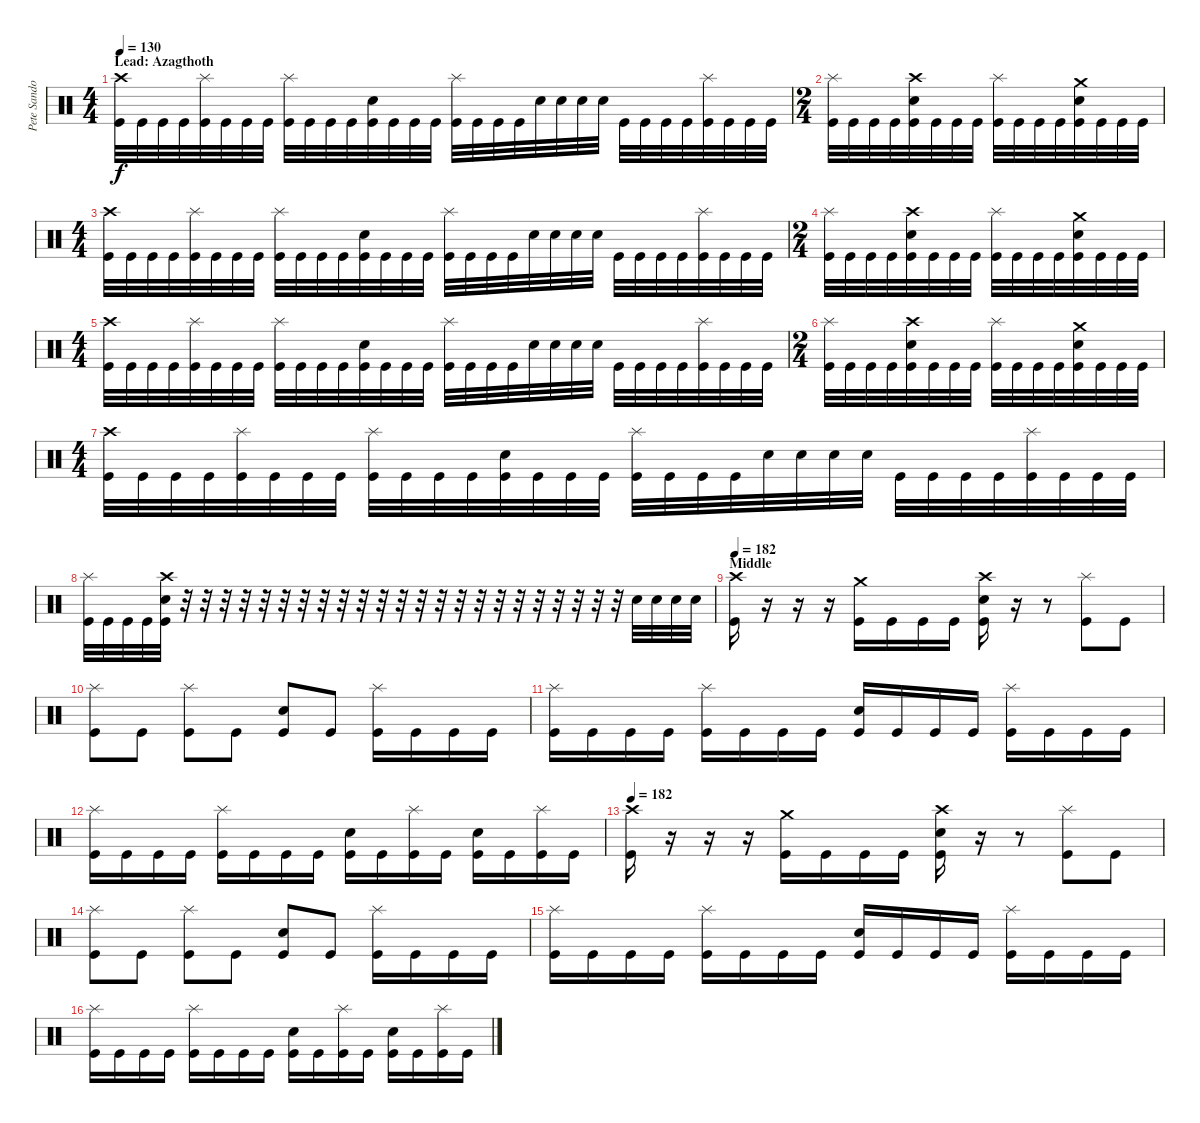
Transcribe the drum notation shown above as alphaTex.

\track ("Pete Sandoval" "Pete Sando") {instrument percussion}
\staff {score}
\articulation defaults
\ts (4 4)
\section ("" "Lead: Azagthoth")
\tempo 130
\clef neutral
\ks c
("Crash high (hit)" "Kick (hit)").32{dy f} "Kick (hit)".32 "Kick (hit)".32 "Kick (hit)".32 ("Splash (hit)" "Kick (hit)").32 "Kick (hit)".32 "Kick (hit)".32 "Kick (hit)".32 ("Splash (hit)" "Kick (hit)").32 "Kick (hit)".32 "Kick (hit)".32 "Kick (hit)".32 ("Electric Snare (hit)" "Kick (hit)").32 "Kick (hit)".32 "Kick (hit)".32 "Kick (hit)".32 ("Splash (hit)" "Kick (hit)").32 "Kick (hit)".32 "Kick (hit)".32 "Kick (hit)".32 "Electric Snare (hit)".32 "Electric Snare (hit)".32 "Electric Snare (hit)".32 "Electric Snare (hit)".32 "Kick (hit)".32 "Kick (hit)".32 "Kick (hit)".32 "Kick (hit)".32 ("Splash (hit)" "Kick (hit)").32 "Kick (hit)".32 "Kick (hit)".32 "Kick (hit)".32 |
\ts (2 4)
("Splash (hit)" "Kick (hit)").32 "Kick (hit)".32 "Kick (hit)".32 "Kick (hit)".32 ("Crash high (hit)" "Electric Snare (hit)" "Kick (hit)").32 "Kick (hit)".32 "Kick (hit)".32 "Kick (hit)".32 ("Splash (hit)" "Kick (hit)").32 "Kick (hit)".32 "Kick (hit)".32 "Kick (hit)".32 ("Crash medium (hit)" "Electric Snare (hit)" "Kick (hit)").32 "Kick (hit)".32 "Kick (hit)".32 "Kick (hit)".32 |
\ts (4 4)
("Crash high (hit)" "Kick (hit)").32 "Kick (hit)".32 "Kick (hit)".32 "Kick (hit)".32 ("Splash (hit)" "Kick (hit)").32 "Kick (hit)".32 "Kick (hit)".32 "Kick (hit)".32 ("Splash (hit)" "Kick (hit)").32 "Kick (hit)".32 "Kick (hit)".32 "Kick (hit)".32 ("Electric Snare (hit)" "Kick (hit)").32 "Kick (hit)".32 "Kick (hit)".32 "Kick (hit)".32 ("Splash (hit)" "Kick (hit)").32 "Kick (hit)".32 "Kick (hit)".32 "Kick (hit)".32 "Electric Snare (hit)".32 "Electric Snare (hit)".32 "Electric Snare (hit)".32 "Electric Snare (hit)".32 "Kick (hit)".32 "Kick (hit)".32 "Kick (hit)".32 "Kick (hit)".32 ("Splash (hit)" "Kick (hit)").32 "Kick (hit)".32 "Kick (hit)".32 "Kick (hit)".32 |
\ts (2 4)
("Splash (hit)" "Kick (hit)").32 "Kick (hit)".32 "Kick (hit)".32 "Kick (hit)".32 ("Crash high (hit)" "Electric Snare (hit)" "Kick (hit)").32 "Kick (hit)".32 "Kick (hit)".32 "Kick (hit)".32 ("Splash (hit)" "Kick (hit)").32 "Kick (hit)".32 "Kick (hit)".32 "Kick (hit)".32 ("Crash medium (hit)" "Electric Snare (hit)" "Kick (hit)").32 "Kick (hit)".32 "Kick (hit)".32 "Kick (hit)".32 |
\ts (4 4)
("Crash high (hit)" "Kick (hit)").32 "Kick (hit)".32 "Kick (hit)".32 "Kick (hit)".32 ("Splash (hit)" "Kick (hit)").32 "Kick (hit)".32 "Kick (hit)".32 "Kick (hit)".32 ("Splash (hit)" "Kick (hit)").32 "Kick (hit)".32 "Kick (hit)".32 "Kick (hit)".32 ("Electric Snare (hit)" "Kick (hit)").32 "Kick (hit)".32 "Kick (hit)".32 "Kick (hit)".32 ("Splash (hit)" "Kick (hit)").32 "Kick (hit)".32 "Kick (hit)".32 "Kick (hit)".32 "Electric Snare (hit)".32 "Electric Snare (hit)".32 "Electric Snare (hit)".32 "Electric Snare (hit)".32 "Kick (hit)".32 "Kick (hit)".32 "Kick (hit)".32 "Kick (hit)".32 ("Splash (hit)" "Kick (hit)").32 "Kick (hit)".32 "Kick (hit)".32 "Kick (hit)".32 |
\ts (2 4)
("Splash (hit)" "Kick (hit)").32 "Kick (hit)".32 "Kick (hit)".32 "Kick (hit)".32 ("Crash high (hit)" "Electric Snare (hit)" "Kick (hit)").32 "Kick (hit)".32 "Kick (hit)".32 "Kick (hit)".32 ("Splash (hit)" "Kick (hit)").32 "Kick (hit)".32 "Kick (hit)".32 "Kick (hit)".32 ("Crash medium (hit)" "Electric Snare (hit)" "Kick (hit)").32 "Kick (hit)".32 "Kick (hit)".32 "Kick (hit)".32 |
\ts (4 4)
("Crash high (hit)" "Kick (hit)").32 "Kick (hit)".32 "Kick (hit)".32 "Kick (hit)".32 ("Splash (hit)" "Kick (hit)").32 "Kick (hit)".32 "Kick (hit)".32 "Kick (hit)".32 ("Splash (hit)" "Kick (hit)").32 "Kick (hit)".32 "Kick (hit)".32 "Kick (hit)".32 ("Electric Snare (hit)" "Kick (hit)").32 "Kick (hit)".32 "Kick (hit)".32 "Kick (hit)".32 ("Splash (hit)" "Kick (hit)").32 "Kick (hit)".32 "Kick (hit)".32 "Kick (hit)".32 "Electric Snare (hit)".32 "Electric Snare (hit)".32 "Electric Snare (hit)".32 "Electric Snare (hit)".32 "Kick (hit)".32 "Kick (hit)".32 "Kick (hit)".32 "Kick (hit)".32 ("Splash (hit)" "Kick (hit)").32 "Kick (hit)".32 "Kick (hit)".32 "Kick (hit)".32 |
("Splash (hit)" "Kick (hit)").32 "Kick (hit)".32 "Kick (hit)".32 "Kick (hit)".32 ("Crash high (hit)" "Electric Snare (hit)" "Kick (hit)").32 r.32 r.32 r.32 r.32 r.32 r.32 r.32 r.32 r.32 r.32 r.32 r.32 r.32 r.32 r.32 r.32 r.32 r.32 r.32 r.32 r.32 r.32 r.32 "Electric Snare (hit)".32 "Electric Snare (hit)".32 "Electric Snare (hit)".32 "Electric Snare (hit)".32 |
\section ("" "Middle")
\tempo 182
("Crash high (hit)" "Kick (hit)").16 r.16 r.16 r.16 ("Crash medium (hit)" "Kick (hit)").16 "Kick (hit)".16 "Kick (hit)".16 "Kick (hit)".16 ("Crash high (hit)" "Electric Snare (hit)" "Kick (hit)").16 r.16 r.8 ("Splash (hit)" "Kick (hit)").8 "Kick (hit)".8 |
("Splash (hit)" "Kick (hit)").8 "Kick (hit)".8 ("Splash (hit)" "Kick (hit)").8 "Kick (hit)".8 ("Electric Snare (hit)" "Kick (hit)").8 "Kick (hit)".8 ("Splash (hit)" "Kick (hit)").16 "Kick (hit)".16 "Kick (hit)".16 "Kick (hit)".16 |
("Splash (hit)" "Kick (hit)").16 "Kick (hit)".16 "Kick (hit)".16 "Kick (hit)".16 ("Splash (hit)" "Kick (hit)").16 "Kick (hit)".16 "Kick (hit)".16 "Kick (hit)".16 ("Electric Snare (hit)" "Kick (hit)").16 "Kick (hit)".16 "Kick (hit)".16 "Kick (hit)".16 ("Splash (hit)" "Kick (hit)").16 "Kick (hit)".16 "Kick (hit)".16 "Kick (hit)".16 |
("Splash (hit)" "Kick (hit)").16 "Kick (hit)".16 "Kick (hit)".16 "Kick (hit)".16 ("Splash (hit)" "Kick (hit)").16 "Kick (hit)".16 "Kick (hit)".16 "Kick (hit)".16 ("Electric Snare (hit)" "Kick (hit)").16 "Kick (hit)".16 ("Splash (hit)" "Kick (hit)").16 "Kick (hit)".16 ("Electric Snare (hit)" "Kick (hit)").16 "Kick (hit)".16 ("Splash (hit)" "Kick (hit)").16 "Kick (hit)".16 |
\tempo 182
("Crash high (hit)" "Kick (hit)").16 r.16 r.16 r.16 ("Crash medium (hit)" "Kick (hit)").16 "Kick (hit)".16 "Kick (hit)".16 "Kick (hit)".16 ("Crash high (hit)" "Electric Snare (hit)" "Kick (hit)").16 r.16 r.8 ("Splash (hit)" "Kick (hit)").8 "Kick (hit)".8 |
("Splash (hit)" "Kick (hit)").8 "Kick (hit)".8 ("Splash (hit)" "Kick (hit)").8 "Kick (hit)".8 ("Electric Snare (hit)" "Kick (hit)").8 "Kick (hit)".8 ("Splash (hit)" "Kick (hit)").16 "Kick (hit)".16 "Kick (hit)".16 "Kick (hit)".16 |
("Splash (hit)" "Kick (hit)").16 "Kick (hit)".16 "Kick (hit)".16 "Kick (hit)".16 ("Splash (hit)" "Kick (hit)").16 "Kick (hit)".16 "Kick (hit)".16 "Kick (hit)".16 ("Electric Snare (hit)" "Kick (hit)").16 "Kick (hit)".16 "Kick (hit)".16 "Kick (hit)".16 ("Splash (hit)" "Kick (hit)").16 "Kick (hit)".16 "Kick (hit)".16 "Kick (hit)".16 |
("Splash (hit)" "Kick (hit)").16 "Kick (hit)".16 "Kick (hit)".16 "Kick (hit)".16 ("Splash (hit)" "Kick (hit)").16 "Kick (hit)".16 "Kick (hit)".16 "Kick (hit)".16 ("Electric Snare (hit)" "Kick (hit)").16 "Kick (hit)".16 ("Splash (hit)" "Kick (hit)").16 "Kick (hit)".16 ("Electric Snare (hit)" "Kick (hit)").16 "Kick (hit)".16 ("Splash (hit)" "Kick (hit)").16 "Kick (hit)".16
